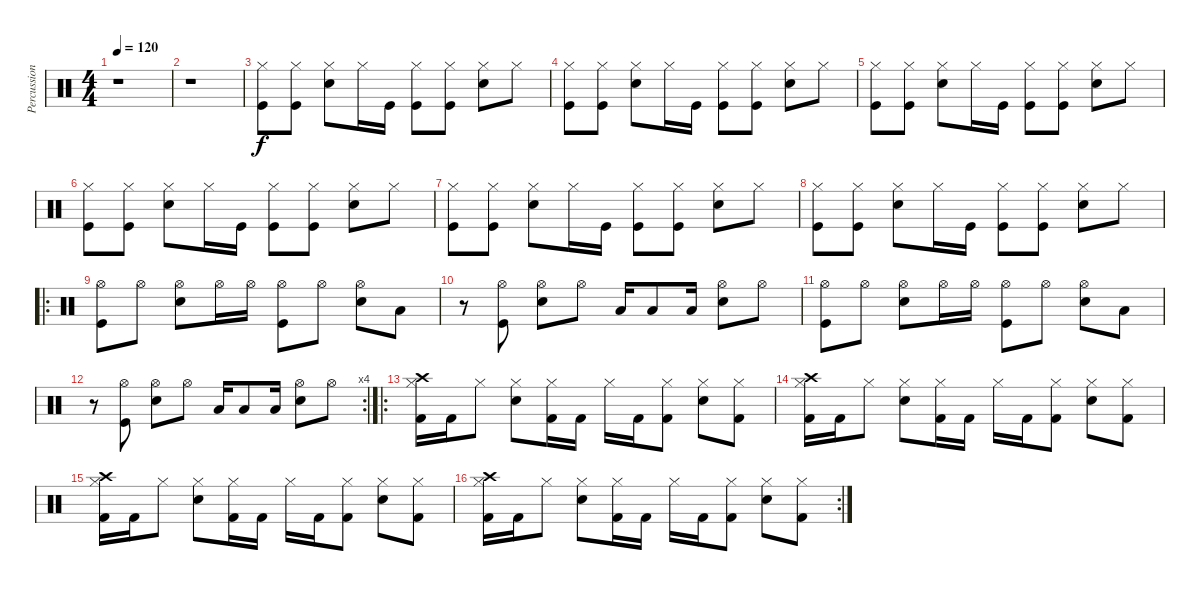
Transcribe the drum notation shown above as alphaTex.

\track ("Percussion" "Percussion") {instrument percussion}
\staff {score}
\articulation defaults
\ts (4 4)
\tempo 120
\clef neutral
\ks c
r.1{dy f} |
r.1 |
("Hi-Hat (closed)" "Kick (hit)").8 ("Hi-Hat (closed)" "Kick (hit)").8 ("Hi-Hat (closed)" "Snare (hit) 2").8 "Hi-Hat (closed)".16 "Kick (hit)".16 ("Hi-Hat (closed)" "Kick (hit)").8 ("Hi-Hat (closed)" "Kick (hit)").8 ("Hi-Hat (closed)" "Snare (hit) 2").8 "Hi-Hat (closed)".8 |
("Hi-Hat (closed)" "Kick (hit)").8 ("Hi-Hat (closed)" "Kick (hit)").8 ("Hi-Hat (closed)" "Snare (hit) 2").8 "Hi-Hat (closed)".16 "Kick (hit)".16 ("Hi-Hat (closed)" "Kick (hit)").8 ("Hi-Hat (closed)" "Kick (hit)").8 ("Hi-Hat (closed)" "Snare (hit) 2").8 "Hi-Hat (closed)".8 |
("Hi-Hat (closed)" "Kick (hit)").8 ("Hi-Hat (closed)" "Kick (hit)").8 ("Hi-Hat (closed)" "Snare (hit) 2").8 "Hi-Hat (closed)".16 "Kick (hit)".16 ("Hi-Hat (closed)" "Kick (hit)").8 ("Hi-Hat (closed)" "Kick (hit)").8 ("Hi-Hat (closed)" "Snare (hit) 2").8 "Hi-Hat (closed)".8 |
("Hi-Hat (closed)" "Kick (hit)").8 ("Hi-Hat (closed)" "Kick (hit)").8 ("Hi-Hat (closed)" "Snare (hit) 2").8 "Hi-Hat (closed)".16 "Kick (hit)".16 ("Hi-Hat (closed)" "Kick (hit)").8 ("Hi-Hat (closed)" "Kick (hit)").8 ("Hi-Hat (closed)" "Snare (hit) 2").8 "Hi-Hat (closed)".8 |
("Hi-Hat (closed)" "Kick (hit)").8 ("Hi-Hat (closed)" "Kick (hit)").8 ("Hi-Hat (closed)" "Snare (hit) 2").8 "Hi-Hat (closed)".16 "Kick (hit)".16 ("Hi-Hat (closed)" "Kick (hit)").8 ("Hi-Hat (closed)" "Kick (hit)").8 ("Hi-Hat (closed)" "Snare (hit) 2").8 "Hi-Hat (closed)".8 |
("Hi-Hat (closed)" "Kick (hit)").8 ("Hi-Hat (closed)" "Kick (hit)").8 ("Hi-Hat (closed)" "Snare (hit) 2").8 "Hi-Hat (closed)".16 "Kick (hit)".16 ("Hi-Hat (closed)" "Kick (hit)").8 ("Hi-Hat (closed)" "Kick (hit)").8 ("Hi-Hat (closed)" "Snare (hit) 2").8 "Hi-Hat (closed)".8 |
\ro
("Kick (hit)" "Hi-Hat (open)").8 "Hi-Hat (open)".8 ("Snare (hit) 2" "Hi-Hat (open)").8 "Hi-Hat (open)".16 "Hi-Hat (open)".16 ("Kick (hit)" "Hi-Hat (open)").8 "Hi-Hat (open)".8 ("Snare (hit) 2" "Hi-Hat (open)").8 "Low Tom (hit)".8 |
r.8 ("Kick (hit)" "Hi-Hat (open)").8 ("Snare (hit) 2" "Hi-Hat (open)").8 "Hi-Hat (open)".8 "Low Tom (hit)".16 "Low Tom (hit)".8 "Low Tom (hit)".16 ("Snare (hit) 2" "Hi-Hat (open)").8 "Hi-Hat (open)".8 |
("Kick (hit)" "Hi-Hat (open)").8 "Hi-Hat (open)".8 ("Snare (hit) 2" "Hi-Hat (open)").8 "Hi-Hat (open)".16 "Hi-Hat (open)".16 ("Kick (hit)" "Hi-Hat (open)").8 "Hi-Hat (open)".8 ("Snare (hit) 2" "Hi-Hat (open)").8 "Low Tom (hit)".8 |
\rc 4
r.8 ("Kick (hit)" "Hi-Hat (open)").8 ("Snare (hit) 2" "Hi-Hat (open)").8 "Hi-Hat (open)".8 "Low Tom (hit)".16 "Low Tom (hit)".8 "Low Tom (hit)".16 ("Snare (hit) 2" "Hi-Hat (open)").8 "Hi-Hat (open)".8 |
\ro
("Crash high (hit)" "Hi-Hat (closed)" "Kick (hit) 2").16 "Kick (hit) 2".16 "Hi-Hat (closed)".8 ("Hi-Hat (closed)" "Snare (hit) 2").8 ("Hi-Hat (closed)" "Kick (hit) 2").16 "Kick (hit) 2".16 "Hi-Hat (closed)".16 "Kick (hit) 2".16 ("Hi-Hat (closed)" "Kick (hit) 2").8 ("Hi-Hat (closed)" "Snare (hit) 2").8 ("Hi-Hat (closed)" "Kick (hit) 2").8 |
("Crash high (hit)" "Hi-Hat (closed)" "Kick (hit) 2").16 "Kick (hit) 2".16 "Hi-Hat (closed)".8 ("Hi-Hat (closed)" "Snare (hit) 2").8 ("Hi-Hat (closed)" "Kick (hit) 2").16 "Kick (hit) 2".16 "Hi-Hat (closed)".16 "Kick (hit) 2".16 ("Hi-Hat (closed)" "Kick (hit) 2").8 ("Hi-Hat (closed)" "Snare (hit) 2").8 ("Hi-Hat (closed)" "Kick (hit) 2").8 |
("Crash high (hit)" "Hi-Hat (closed)" "Kick (hit) 2").16 "Kick (hit) 2".16 "Hi-Hat (closed)".8 ("Hi-Hat (closed)" "Snare (hit) 2").8 ("Hi-Hat (closed)" "Kick (hit) 2").16 "Kick (hit) 2".16 "Hi-Hat (closed)".16 "Kick (hit) 2".16 ("Hi-Hat (closed)" "Kick (hit) 2").8 ("Hi-Hat (closed)" "Snare (hit) 2").8 ("Hi-Hat (closed)" "Kick (hit) 2").8 |
\rc 2
("Crash high (hit)" "Hi-Hat (closed)" "Kick (hit) 2").16 "Kick (hit) 2".16 "Hi-Hat (closed)".8 ("Hi-Hat (closed)" "Snare (hit) 2").8 ("Hi-Hat (closed)" "Kick (hit) 2").16 "Kick (hit) 2".16 "Hi-Hat (closed)".16 "Kick (hit) 2".16 ("Hi-Hat (closed)" "Kick (hit) 2").8 ("Hi-Hat (closed)" "Snare (hit) 2").8 ("Hi-Hat (closed)" "Kick (hit) 2").8
